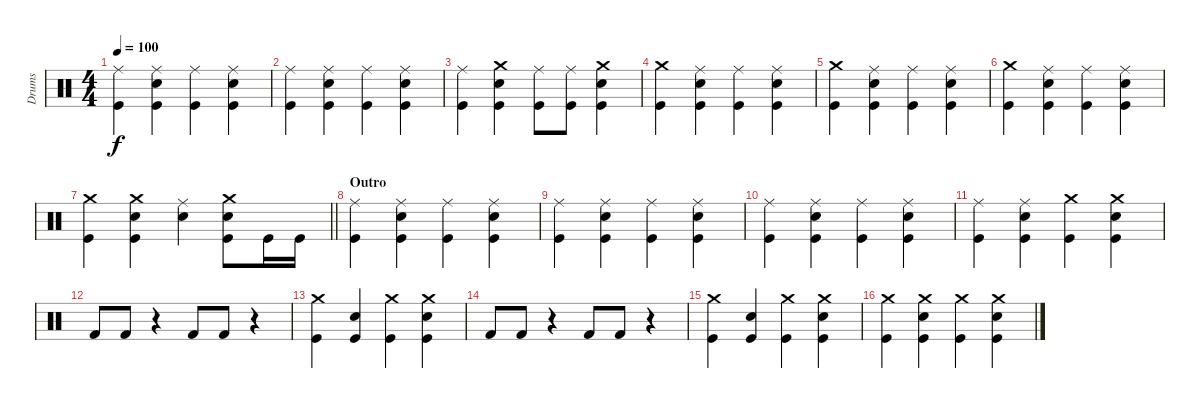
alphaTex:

\track ("Drums" "Drums") {instrument percussion}
\staff {score}
\articulation defaults
\ts (4 4)
\tempo 100
\clef neutral
\ks c
("Ride (middle)" "Kick (hit)").4{dy f} ("Ride (middle)" "Kick (hit)" "Snare (hit) 2").4 ("Ride (middle)" "Kick (hit)").4 ("Ride (middle)" "Kick (hit)" "Snare (hit) 2").4 |
("Ride (middle)" "Kick (hit)").4 ("Ride (middle)" "Kick (hit)" "Snare (hit) 2").4 ("Ride (middle)" "Kick (hit)").4 ("Ride (middle)" "Kick (hit)" "Snare (hit) 2").4 |
("Ride (middle)" "Kick (hit)").4 ("Crash medium (hit)" "Kick (hit)" "Snare (hit) 2").4 ("Ride (middle)" "Kick (hit)").8 ("Ride (middle)" "Kick (hit)").8 ("Crash medium (hit)" "Kick (hit)" "Snare (hit) 2").4 |
("Crash medium (hit)" "Kick (hit)").4 ("Ride (middle)" "Kick (hit)" "Snare (hit) 2").4 ("Ride (middle)" "Kick (hit)").4 ("Ride (middle)" "Kick (hit)" "Snare (hit) 2").4 |
("Crash medium (hit)" "Kick (hit)").4 ("Ride (middle)" "Kick (hit)" "Snare (hit) 2").4 ("Ride (middle)" "Kick (hit)").4 ("Ride (middle)" "Kick (hit)" "Snare (hit) 2").4 |
("Crash medium (hit)" "Kick (hit)").4 ("Ride (middle)" "Kick (hit)" "Snare (hit) 2").4 ("Ride (middle)" "Kick (hit)").4 ("Ride (middle)" "Kick (hit)" "Snare (hit) 2").4 |
\barLineRight lightlight
("Crash medium (hit)" "Kick (hit)").4 ("Crash medium (hit)" "Kick (hit)" "Snare (hit) 2").4 ("Ride (middle)" "Snare (hit) 2").4 ("Crash medium (hit)" "Kick (hit)" "Snare (hit) 2").8 "Kick (hit)".16 "Kick (hit)".16 |
\section ("" "Outro")
("Ride (middle)" "Kick (hit)").4 ("Ride (middle)" "Kick (hit)" "Snare (hit) 2").4 ("Ride (middle)" "Kick (hit)").4 ("Ride (middle)" "Kick (hit)" "Snare (hit) 2").4 |
("Ride (middle)" "Kick (hit)").4 ("Ride (middle)" "Kick (hit)" "Snare (hit) 2").4 ("Ride (middle)" "Kick (hit)").4 ("Ride (middle)" "Kick (hit)" "Snare (hit) 2").4 |
("Ride (middle)" "Kick (hit)").4 ("Ride (middle)" "Kick (hit)" "Snare (hit) 2").4 ("Ride (middle)" "Kick (hit)").4 ("Ride (middle)" "Kick (hit)" "Snare (hit) 2").4 |
("Ride (middle)" "Kick (hit)").4 ("Ride (middle)" "Kick (hit)" "Snare (hit) 2").4 ("Crash medium (hit)" "Kick (hit)").4 ("Crash medium (hit)" "Kick (hit)" "Snare (hit) 2").4 |
"Kick (hit) 2".8 "Kick (hit) 2".8 r.4 "Kick (hit) 2".8 "Kick (hit) 2".8 r.4 |
("Crash medium (hit)" "Kick (hit)").4 ("Kick (hit)" "Snare (hit) 2").4 ("Crash medium (hit)" "Kick (hit)").4 ("Crash medium (hit)" "Kick (hit)" "Snare (hit) 2").4 |
"Kick (hit) 2".8 "Kick (hit) 2".8 r.4 "Kick (hit) 2".8 "Kick (hit) 2".8 r.4 |
("Crash medium (hit)" "Kick (hit)").4 ("Kick (hit)" "Snare (hit) 2").4 ("Crash medium (hit)" "Kick (hit)").4 ("Crash medium (hit)" "Kick (hit)" "Snare (hit) 2").4 |
("Crash medium (hit)" "Kick (hit)").4 ("Crash medium (hit)" "Kick (hit)" "Snare (hit) 2").4 ("Crash medium (hit)" "Kick (hit)").4 ("Crash medium (hit)" "Kick (hit)" "Snare (hit) 2").4
